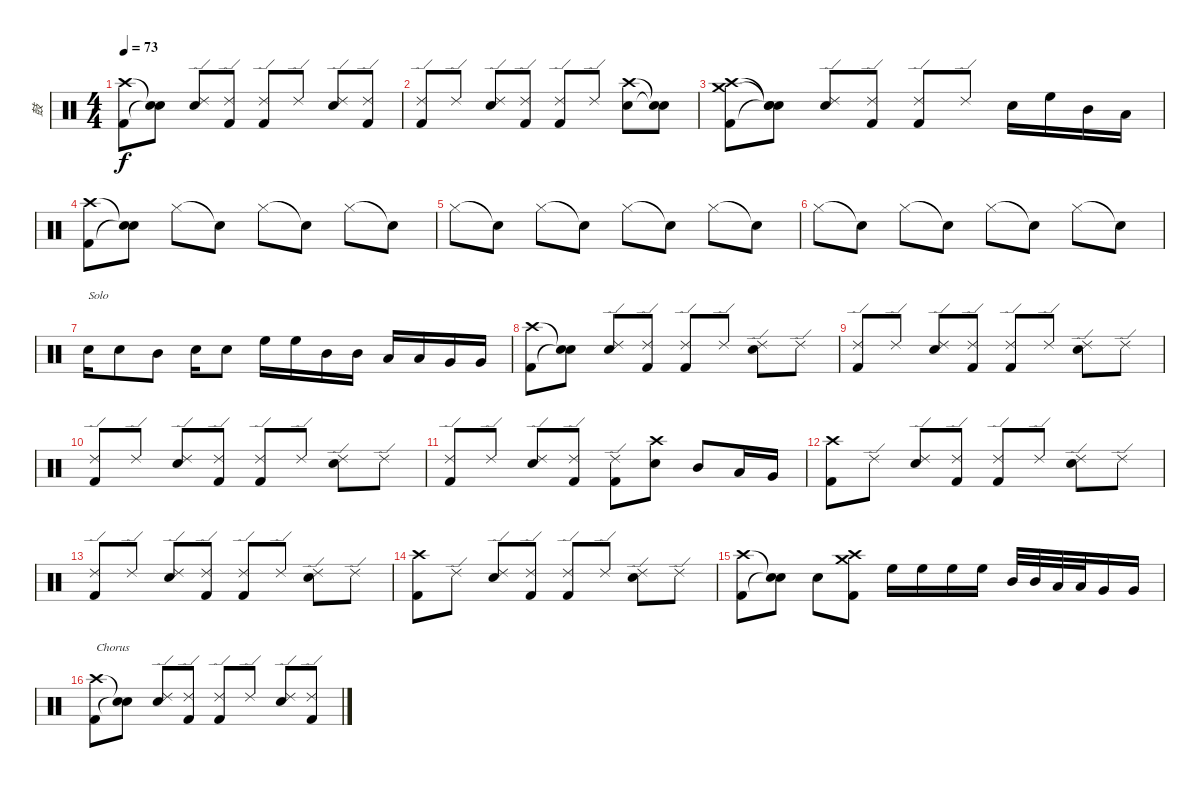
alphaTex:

\track ("鼓" "鼓") {instrument percussion}
\staff {score}
\articulation defaults
\ts (4 4)
\tempo 73
\clef neutral
\ks c
("Crash high (hit)" "Kick (hit) 2").8{dy f} ("Snare (hit)"{t} "Snare (hit)"{t}).8 ("Ride (edge) 2" "Electric Snare (hit)").8 ("Ride (edge) 2" "Kick (hit) 2").8 ("Ride (edge) 2" "Kick (hit) 2").8 "Ride (edge) 2".8 ("Ride (edge) 2" "Electric Snare (hit)").8 ("Ride (edge) 2" "Kick (hit) 2").8 |
("Ride (edge) 2" "Kick (hit) 2").8 "Ride (edge) 2".8 ("Ride (edge) 2" "Electric Snare (hit)").8 ("Ride (edge) 2" "Kick (hit) 2").8 ("Ride (edge) 2" "Kick (hit) 2").8 "Ride (edge) 2".8 ("Crash high (hit)" "Electric Snare (hit)").8 ("Snare (hit)"{t} "Snare (hit)"{t}).8 |
("Crash high (hit)" "Crash medium (hit)" "Kick (hit) 2").8 ("Snare (hit)"{t} "Snare (hit)"{t} "Snare (hit)"{t}).8 ("Ride (edge) 2" "Electric Snare (hit)").8 ("Ride (edge) 2" "Kick (hit) 2").8 ("Ride (edge) 2" "Kick (hit) 2").8 "Ride (edge) 2".8 "Electric Snare (hit)".16 "High Floor Tom (hit)".16 "Mid Tom (hit)".16 "Low Tom (hit)".16 |
("Crash high (hit)" "Kick (hit) 2").8 ("Snare (hit)"{t} "Snare (hit)"{t}).8 "Hi-Hat (closed)".8 "Snare (hit)"{t}.8 "Hi-Hat (closed)".8 "Snare (hit)"{t}.8 "Hi-Hat (closed)".8 "Snare (hit)"{t}.8 |
"Hi-Hat (closed)".8 "Snare (hit)"{t}.8 "Hi-Hat (closed)".8 "Snare (hit)"{t}.8 "Hi-Hat (closed)".8 "Snare (hit)"{t}.8 "Hi-Hat (closed)".8 "Snare (hit)"{t}.8 |
"Hi-Hat (closed)".8 "Snare (hit)"{t}.8 "Hi-Hat (closed)".8 "Snare (hit)"{t}.8 "Hi-Hat (closed)".8 "Snare (hit)"{t}.8 "Hi-Hat (closed)".8 "Snare (hit)"{t}.8 |
"Electric Snare (hit)".16{txt "Solo"} "Electric Snare (hit)".8 "Mid Tom (hit)".8 "Electric Snare (hit)".16 "Electric Snare (hit)".8 "High Floor Tom (hit)".16 "High Floor Tom (hit)".16 "Mid Tom (hit)".16 "Mid Tom (hit)".16 "Low Tom (hit)".16 "Low Tom (hit)".16 "Very Low Tom (hit)".16 "Very Low Tom (hit)".16 |
("Crash high (hit)" "Kick (hit) 2").8 ("Snare (hit)"{t} "Snare (hit)"{t}).8 ("Ride (edge) 2" "Electric Snare (hit)").8 ("Ride (edge) 2" "Kick (hit) 2").8 ("Ride (edge) 2" "Kick (hit) 2").8 "Ride (edge) 2".8 ("Ride (edge) 2" "Electric Snare (hit)").8 "Ride (edge) 2".8 |
("Ride (edge) 2" "Kick (hit) 2").8 "Ride (edge) 2".8 ("Ride (edge) 2" "Electric Snare (hit)").8 ("Ride (edge) 2" "Kick (hit) 2").8 ("Ride (edge) 2" "Kick (hit) 2").8 "Ride (edge) 2".8 ("Ride (edge) 2" "Electric Snare (hit)").8 "Ride (edge) 2".8 |
("Ride (edge) 2" "Kick (hit) 2").8 "Ride (edge) 2".8 ("Ride (edge) 2" "Electric Snare (hit)").8 ("Ride (edge) 2" "Kick (hit) 2").8 ("Ride (edge) 2" "Kick (hit) 2").8 "Ride (edge) 2".8 ("Ride (edge) 2" "Electric Snare (hit)").8 "Ride (edge) 2".8 |
("Ride (edge) 2" "Kick (hit) 2").8 "Ride (edge) 2".8 ("Ride (edge) 2" "Electric Snare (hit)").8 ("Ride (edge) 2" "Kick (hit) 2").8 ("Ride (edge) 2" "Kick (hit) 2").8 ("Crash high (hit)" "Electric Snare (hit)").8 "Mid Tom (hit)".8 "Low Tom (hit)".16 "Very Low Tom (hit)".16 |
("Crash high (hit)" "Kick (hit) 2").8 "Ride (edge) 2".8 ("Ride (edge) 2" "Electric Snare (hit)").8 ("Ride (edge) 2" "Kick (hit) 2").8 ("Ride (edge) 2" "Kick (hit) 2").8 "Ride (edge) 2".8 ("Ride (edge) 2" "Electric Snare (hit)").8 "Ride (edge) 2".8 |
("Ride (edge) 2" "Kick (hit) 2").8 "Ride (edge) 2".8 ("Ride (edge) 2" "Electric Snare (hit)").8 ("Ride (edge) 2" "Kick (hit) 2").8 ("Ride (edge) 2" "Kick (hit) 2").8 "Ride (edge) 2".8 ("Ride (edge) 2" "Electric Snare (hit)").8 "Ride (edge) 2".8 |
("Crash high (hit)" "Kick (hit) 2").8 "Ride (edge) 2".8 ("Ride (edge) 2" "Electric Snare (hit)").8 ("Ride (edge) 2" "Kick (hit) 2").8 ("Ride (edge) 2" "Kick (hit) 2").8 "Ride (edge) 2".8 ("Ride (edge) 2" "Electric Snare (hit)").8 "Ride (edge) 2".8 |
("Crash high (hit)" "Kick (hit) 2").8 ("Snare (hit)"{t} "Snare (hit)"{t}).8 "Electric Snare (hit)".8 ("Crash high (hit)" "Crash medium (hit)" "Kick (hit) 2").8 "High Floor Tom (hit)".16 "High Floor Tom (hit)".16 "High Floor Tom (hit)".16 "High Floor Tom (hit)".16 "Mid Tom (hit)".32 "Mid Tom (hit)".32 "Low Tom (hit)".32 "Low Tom (hit)".32 "Very Low Tom (hit)".16 "Very Low Tom (hit)".16 |
("Crash high (hit)" "Kick (hit) 2").8{txt "Chorus"} ("Snare (hit)"{t} "Snare (hit)"{t}).8 ("Ride (edge) 2" "Electric Snare (hit)").8 ("Ride (edge) 2" "Kick (hit) 2").8 ("Ride (edge) 2" "Kick (hit) 2").8 "Ride (edge) 2".8 ("Ride (edge) 2" "Electric Snare (hit)").8 ("Ride (edge) 2" "Kick (hit) 2").8
